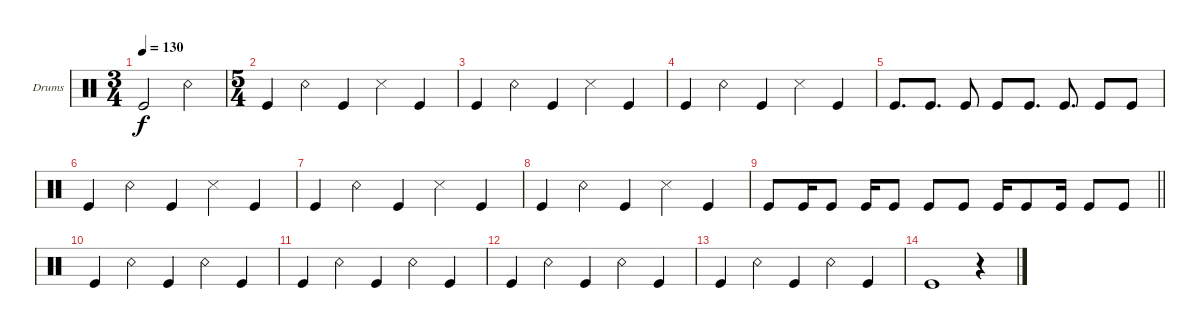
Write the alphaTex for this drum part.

\defaultSystemsLayout 4
\bracketExtendMode groupsimilarinstruments
\firstSystemTrackNameOrientation horizontal
\otherSystemsTrackNameOrientation horizontal
\track ("Drumkit" "Drums") {instrument percussion}
\staff {score}
\articulation defaults
\ts (3 4)
\tempo 130
\clef neutral
\ks c "Kick (hit)".2{dy f} "Snare (rim shot)".4
|
\ts (5 4)
"Kick (hit)".4 "Snare (rim shot)".4 "Kick (hit)".4 "Snare (side stick) 3".4 "Kick (hit)".4 |
"Kick (hit)".4 "Snare (rim shot)".4 "Kick (hit)".4 "Snare (side stick) 3".4 "Kick (hit)".4 |
"Kick (hit)".4 "Snare (rim shot)".4 "Kick (hit)".4 "Snare (side stick) 3".4 "Kick (hit)".4 |
"Kick (hit)".8{d} "Kick (hit)".8{d} "Kick (hit)".8 "Kick (hit)".8 "Kick (hit)".8{d} "Kick (hit)".8{d} "Kick (hit)".8 "Kick (hit)".8 |
"Kick (hit)".4 "Snare (rim shot)".4 "Kick (hit)".4 "Snare (side stick) 3".4 "Kick (hit)".4 |
"Kick (hit)".4 "Snare (rim shot)".4 "Kick (hit)".4 "Snare (side stick) 3".4 "Kick (hit)".4 |
"Kick (hit)".4 "Snare (rim shot)".4 "Kick (hit)".4 "Snare (side stick) 3".4 "Kick (hit)".4 |
\scale
0.419546
\barLineRight lightlight "Kick (hit)".8 "Kick (hit)".16 "Kick (hit)".8 "Kick (hit)".16 "Kick (hit)".8 "Kick (hit)".8 "Kick (hit)".8 "Kick (hit)".16 "Kick (hit)".8 "Kick (hit)".16 "Kick (hit)".8 "Kick (hit)".8
|
\scale
0.580513 "Kick (hit)".4 "Snare (rim shot)".4 "Kick (hit)".4 "Snare (rim shot)".4 "Kick (hit)".4 |
\scale
0.425254 "Kick (hit)".4 "Snare (rim shot)".4 "Kick (hit)".4 "Snare (rim shot)".4 "Kick (hit)".4 |
\scale
0.574807 "Kick (hit)".4 "Snare (rim shot)".4 "Kick (hit)".4 "Snare (rim shot)".4 "Kick (hit)".4 |
"Kick (hit)".4 "Snare (rim shot)".4 "Kick (hit)".4 "Snare (rim shot)".4 "Kick (hit)".4 |
"Kick (hit)".1 r.4 |
\beaming (8 1 1 1 1 1 1 1 1 1 1)
